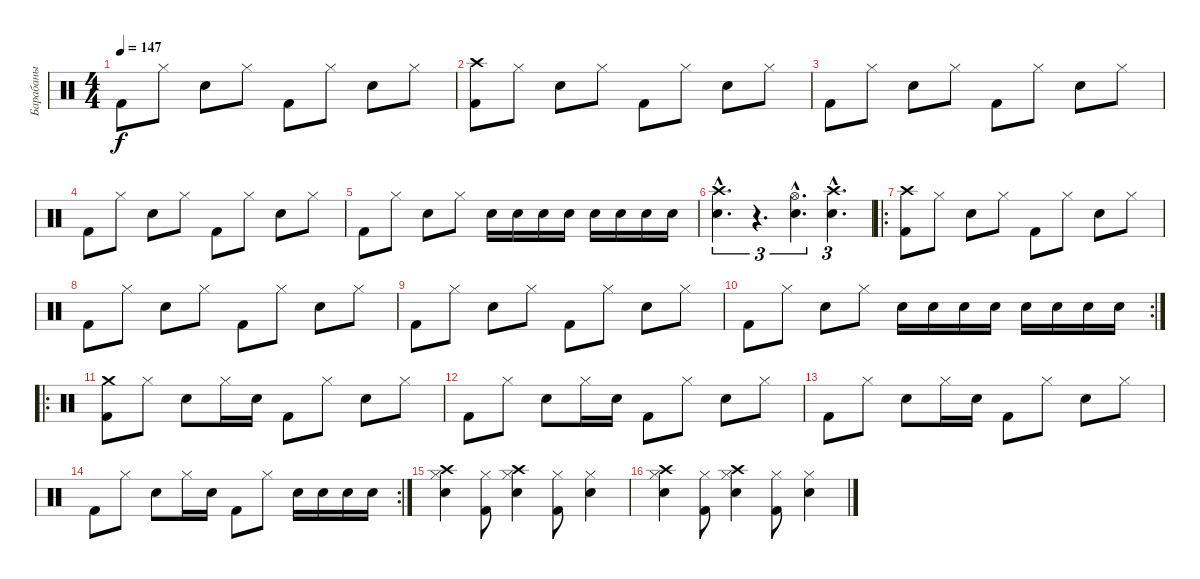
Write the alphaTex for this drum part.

\track ("Барабаны" "Барабаны") {instrument percussion}
\staff {score}
\articulation defaults
\ts (4 4)
\tempo 147
\clef neutral
\ks c "Kick (hit) 2".8{dy f} "Hi-Hat (closed)".8 "Electric Snare (hit)".8 "Hi-Hat (closed)".8 "Kick (hit) 2".8 "Hi-Hat (closed)".8 "Electric Snare (hit)".8 "Hi-Hat (closed)".8
|
("Kick (hit) 2" "Crash high (hit)").8 "Hi-Hat (closed)".8 "Electric Snare (hit)".8 "Hi-Hat (closed)".8 "Kick (hit) 2".8 "Hi-Hat (closed)".8 "Electric Snare (hit)".8 "Hi-Hat (closed)".8 |
"Kick (hit) 2".8 "Hi-Hat (closed)".8 "Electric Snare (hit)".8 "Hi-Hat (closed)".8 "Kick (hit) 2".8 "Hi-Hat (closed)".8 "Electric Snare (hit)".8 "Hi-Hat (closed)".8 |
"Kick (hit) 2".8 "Hi-Hat (closed)".8 "Electric Snare (hit)".8 "Hi-Hat (closed)".8 "Kick (hit) 2".8 "Hi-Hat (closed)".8 "Electric Snare (hit)".8 "Hi-Hat (closed)".8 |
"Kick (hit) 2".8 "Hi-Hat (closed)".8 "Electric Snare (hit)".8 "Hi-Hat (closed)".8 "Electric Snare (hit)".16 "Electric Snare (hit)".16 "Electric Snare (hit)".16 "Electric Snare (hit)".16 "Electric Snare (hit)".16 "Electric Snare (hit)".16 "Electric Snare (hit)".16 "Electric Snare (hit)".16 |
("Electric Snare (hit)"{hac} "Crash high (hit)"{hac}).4{d tu (3 2)} r.4{d tu (3 2)} ("Electric Snare (hit)"{hac} "Hi-Hat (open)"{hac}).4{d tu (3 2)} ("Electric Snare (hit)"{hac} "Crash high (hit)"{hac}).4{d tu (3 2)} |
\ro
("Kick (hit) 2" "Crash high (hit)").8 "Hi-Hat (closed)".8 "Electric Snare (hit)".8 "Hi-Hat (closed)".8 "Kick (hit) 2".8 "Hi-Hat (closed)".8 "Electric Snare (hit)".8 "Hi-Hat (closed)".8 |
"Kick (hit) 2".8 "Hi-Hat (closed)".8 "Electric Snare (hit)".8 "Hi-Hat (closed)".8 "Kick (hit) 2".8 "Hi-Hat (closed)".8 "Electric Snare (hit)".8 "Hi-Hat (closed)".8 |
"Kick (hit) 2".8 "Hi-Hat (closed)".8 "Electric Snare (hit)".8 "Hi-Hat (closed)".8 "Kick (hit) 2".8 "Hi-Hat (closed)".8 "Electric Snare (hit)".8 "Hi-Hat (closed)".8 |
\rc 2 "Kick (hit) 2".8 "Hi-Hat (closed)".8 "Electric Snare (hit)".8 "Hi-Hat (closed)".8 "Electric Snare (hit)".16 "Electric Snare (hit)".16 "Electric Snare (hit)".16 "Electric Snare (hit)".16 "Electric Snare (hit)".16 "Electric Snare (hit)".16 "Electric Snare (hit)".16 "Electric Snare (hit)".16
|
\ro
("Kick (hit) 2" "Crash medium (hit)").8 "Hi-Hat (closed)".8 "Electric Snare (hit)".8 "Hi-Hat (closed)".16 "Electric Snare (hit)".16 "Kick (hit) 2".8 "Hi-Hat (closed)".8 "Electric Snare (hit)".8 "Hi-Hat (closed)".8 |
"Kick (hit) 2".8 "Hi-Hat (closed)".8 "Electric Snare (hit)".8 "Hi-Hat (closed)".16 "Electric Snare (hit)".16 "Kick (hit) 2".8 "Hi-Hat (closed)".8 "Electric Snare (hit)".8 "Hi-Hat (closed)".8 |
"Kick (hit) 2".8 "Hi-Hat (closed)".8 "Electric Snare (hit)".8 "Hi-Hat (closed)".16 "Electric Snare (hit)".16 "Kick (hit) 2".8 "Hi-Hat (closed)".8 "Electric Snare (hit)".8 "Hi-Hat (closed)".8 |
\rc 2 "Kick (hit) 2".8 "Hi-Hat (closed)".8 "Electric Snare (hit)".8 "Hi-Hat (closed)".16 "Electric Snare (hit)".16 "Kick (hit) 2".8 "Hi-Hat (closed)".8 "Electric Snare (hit)".16 "Electric Snare (hit)".16 "Electric Snare (hit)".16 "Electric Snare (hit)".16
|
("Crash high (hit)" "Electric Snare (hit)" "Hi-Hat (closed)").4 ("Kick (hit) 2" "Hi-Hat (closed)").8 ("Crash high (hit)" "Electric Snare (hit)" "Hi-Hat (closed)").4 ("Kick (hit) 2" "Hi-Hat (closed)").8 ("Electric Snare (hit)" "Hi-Hat (closed)").4 |
("Crash high (hit)" "Electric Snare (hit)" "Hi-Hat (closed)").4 ("Kick (hit) 2" "Hi-Hat (closed)").8 ("Crash high (hit)" "Electric Snare (hit)" "Hi-Hat (closed)").4 ("Kick (hit) 2" "Hi-Hat (closed)").8 ("Electric Snare (hit)" "Hi-Hat (closed)").4
